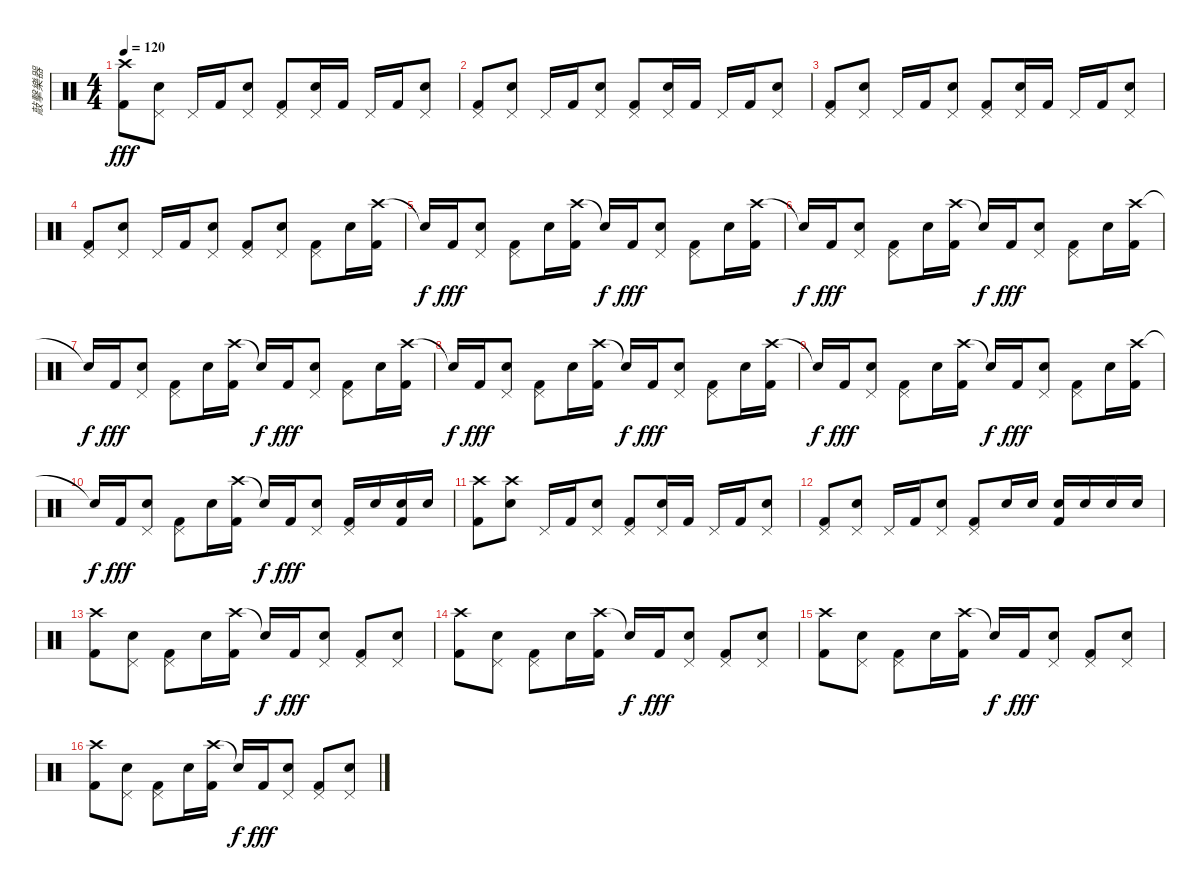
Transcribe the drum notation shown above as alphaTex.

\track ("敲擊樂器" "敲擊樂器") {instrument percussion}
\staff {score}
\articulation defaults
\ts (4 4)
\tempo 120
\clef neutral
\ks c
("Crash high (hit)" "Kick (hit) 2").8{dy fff} ("Pedal Hi-Hat (hit)" "Snare (hit) 2").8 "Pedal Hi-Hat (hit)".16 "Kick (hit) 2".16 ("Pedal Hi-Hat (hit)" "Snare (hit) 2").8 ("Pedal Hi-Hat (hit)" "Kick (hit) 2").8 ("Pedal Hi-Hat (hit)" "Snare (hit) 2").16 "Kick (hit) 2".16 "Pedal Hi-Hat (hit)".16 "Kick (hit) 2".16 ("Pedal Hi-Hat (hit)" "Snare (hit) 2").8 |
("Pedal Hi-Hat (hit)" "Kick (hit) 2").8 ("Pedal Hi-Hat (hit)" "Snare (hit) 2").8 "Pedal Hi-Hat (hit)".16 "Kick (hit) 2".16 ("Pedal Hi-Hat (hit)" "Snare (hit) 2").8 ("Pedal Hi-Hat (hit)" "Kick (hit) 2").8 ("Pedal Hi-Hat (hit)" "Snare (hit) 2").16 "Kick (hit) 2".16 "Pedal Hi-Hat (hit)".16 "Kick (hit) 2".16 ("Pedal Hi-Hat (hit)" "Snare (hit) 2").8 |
("Pedal Hi-Hat (hit)" "Kick (hit) 2").8 ("Pedal Hi-Hat (hit)" "Snare (hit) 2").8 "Pedal Hi-Hat (hit)".16 "Kick (hit) 2".16 ("Pedal Hi-Hat (hit)" "Snare (hit) 2").8 ("Pedal Hi-Hat (hit)" "Kick (hit) 2").8 ("Pedal Hi-Hat (hit)" "Snare (hit) 2").16 "Kick (hit) 2".16 "Pedal Hi-Hat (hit)".16 "Kick (hit) 2".16 ("Pedal Hi-Hat (hit)" "Snare (hit) 2").8 |
("Pedal Hi-Hat (hit)" "Kick (hit) 2").8 ("Pedal Hi-Hat (hit)" "Snare (hit) 2").8 "Pedal Hi-Hat (hit)".16 "Kick (hit) 2".16 ("Pedal Hi-Hat (hit)" "Snare (hit) 2").8 ("Pedal Hi-Hat (hit)" "Kick (hit) 2").8 ("Pedal Hi-Hat (hit)" "Snare (hit) 2").8 ("Pedal Hi-Hat (hit)" "Kick (hit) 2").8 "Snare (hit) 2".16 ("Crash high (hit)" "Kick (hit) 2").16 |
"Snare (hit)"{t}.16{dy f} "Kick (hit) 2".16{dy fff} ("Pedal Hi-Hat (hit)" "Snare (hit) 2").8 ("Pedal Hi-Hat (hit)" "Kick (hit) 2").8 "Snare (hit) 2".16 ("Crash high (hit)" "Kick (hit) 2").16 "Snare (hit)"{t}.16{dy f} "Kick (hit) 2".16{dy fff} ("Pedal Hi-Hat (hit)" "Snare (hit) 2").8 ("Pedal Hi-Hat (hit)" "Kick (hit) 2").8 "Snare (hit) 2".16 ("Crash high (hit)" "Kick (hit) 2").16 |
"Snare (hit)"{t}.16{dy f} "Kick (hit) 2".16{dy fff} ("Pedal Hi-Hat (hit)" "Snare (hit) 2").8 ("Pedal Hi-Hat (hit)" "Kick (hit) 2").8 "Snare (hit) 2".16 ("Crash high (hit)" "Kick (hit) 2").16 "Snare (hit)"{t}.16{dy f} "Kick (hit) 2".16{dy fff} ("Pedal Hi-Hat (hit)" "Snare (hit) 2").8 ("Pedal Hi-Hat (hit)" "Kick (hit) 2").8 "Snare (hit) 2".16 ("Crash high (hit)" "Kick (hit) 2").16 |
"Snare (hit)"{t}.16{dy f} "Kick (hit) 2".16{dy fff} ("Pedal Hi-Hat (hit)" "Snare (hit) 2").8 ("Pedal Hi-Hat (hit)" "Kick (hit) 2").8 "Snare (hit) 2".16 ("Crash high (hit)" "Kick (hit) 2").16 "Snare (hit)"{t}.16{dy f} "Kick (hit) 2".16{dy fff} ("Pedal Hi-Hat (hit)" "Snare (hit) 2").8 ("Pedal Hi-Hat (hit)" "Kick (hit) 2").8 "Snare (hit) 2".16 ("Crash high (hit)" "Kick (hit) 2").16 |
"Snare (hit)"{t}.16{dy f} "Kick (hit) 2".16{dy fff} ("Pedal Hi-Hat (hit)" "Snare (hit) 2").8 ("Pedal Hi-Hat (hit)" "Kick (hit) 2").8 "Snare (hit) 2".16 ("Crash high (hit)" "Kick (hit) 2").16 "Snare (hit)"{t}.16{dy f} "Kick (hit) 2".16{dy fff} ("Pedal Hi-Hat (hit)" "Snare (hit) 2").8 ("Pedal Hi-Hat (hit)" "Kick (hit) 2").8 "Snare (hit) 2".16 ("Crash high (hit)" "Kick (hit) 2").16 |
"Snare (hit)"{t}.16{dy f} "Kick (hit) 2".16{dy fff} ("Pedal Hi-Hat (hit)" "Snare (hit) 2").8 ("Pedal Hi-Hat (hit)" "Kick (hit) 2").8 "Snare (hit) 2".16 ("Crash high (hit)" "Kick (hit) 2").16 "Snare (hit)"{t}.16{dy f} "Kick (hit) 2".16{dy fff} ("Pedal Hi-Hat (hit)" "Snare (hit) 2").8 ("Pedal Hi-Hat (hit)" "Kick (hit) 2").8 "Snare (hit) 2".16 ("Crash high (hit)" "Kick (hit) 2").16 |
"Snare (hit)"{t}.16{dy f} "Kick (hit) 2".16{dy fff} ("Pedal Hi-Hat (hit)" "Snare (hit) 2").8 ("Pedal Hi-Hat (hit)" "Kick (hit) 2").8 "Snare (hit) 2".16 ("Crash high (hit)" "Kick (hit) 2").16 "Snare (hit)"{t}.16{dy f} "Kick (hit) 2".16{dy fff} ("Pedal Hi-Hat (hit)" "Snare (hit) 2").8 ("Pedal Hi-Hat (hit)" "Kick (hit) 2").16 "Snare (hit) 2".16 ("Snare (hit) 2" "Kick (hit) 2").16 "Snare (hit) 2".16 |
("Crash high (hit)" "Kick (hit) 2").8 ("Crash high (hit)" "Snare (hit) 2").8 "Pedal Hi-Hat (hit)".16 "Kick (hit) 2".16 ("Pedal Hi-Hat (hit)" "Snare (hit) 2").8 ("Pedal Hi-Hat (hit)" "Kick (hit) 2").8 ("Pedal Hi-Hat (hit)" "Snare (hit) 2").16 "Kick (hit) 2".16 "Pedal Hi-Hat (hit)".16 "Kick (hit) 2".16 ("Pedal Hi-Hat (hit)" "Snare (hit) 2").8 |
("Pedal Hi-Hat (hit)" "Kick (hit) 2").8 ("Pedal Hi-Hat (hit)" "Snare (hit) 2").8 "Pedal Hi-Hat (hit)".16 "Kick (hit) 2".16 ("Pedal Hi-Hat (hit)" "Snare (hit) 2").8 ("Pedal Hi-Hat (hit)" "Kick (hit) 2").8 "Snare (hit) 2".16 "Snare (hit) 2".16 ("Snare (hit) 2" "Kick (hit) 2").16 "Snare (hit) 2".16 "Snare (hit) 2".16 "Snare (hit) 2".16 |
("Crash high (hit)" "Kick (hit) 2").8 ("Pedal Hi-Hat (hit)" "Snare (hit) 2").8 ("Pedal Hi-Hat (hit)" "Kick (hit) 2").8 "Snare (hit) 2".16 ("Crash high (hit)" "Kick (hit) 2").16 "Snare (hit)"{t}.16{dy f} "Kick (hit) 2".16{dy fff} ("Pedal Hi-Hat (hit)" "Snare (hit) 2").8 ("Pedal Hi-Hat (hit)" "Kick (hit) 2").8 ("Pedal Hi-Hat (hit)" "Snare (hit) 2").8 |
("Crash high (hit)" "Kick (hit) 2").8 ("Pedal Hi-Hat (hit)" "Snare (hit) 2").8 ("Pedal Hi-Hat (hit)" "Kick (hit) 2").8 "Snare (hit) 2".16 ("Crash high (hit)" "Kick (hit) 2").16 "Snare (hit)"{t}.16{dy f} "Kick (hit) 2".16{dy fff} ("Pedal Hi-Hat (hit)" "Snare (hit) 2").8 ("Pedal Hi-Hat (hit)" "Kick (hit) 2").8 ("Pedal Hi-Hat (hit)" "Snare (hit) 2").8 |
("Crash high (hit)" "Kick (hit) 2").8 ("Pedal Hi-Hat (hit)" "Snare (hit) 2").8 ("Pedal Hi-Hat (hit)" "Kick (hit) 2").8 "Snare (hit) 2".16 ("Crash high (hit)" "Kick (hit) 2").16 "Snare (hit)"{t}.16{dy f} "Kick (hit) 2".16{dy fff} ("Pedal Hi-Hat (hit)" "Snare (hit) 2").8 ("Pedal Hi-Hat (hit)" "Kick (hit) 2").8 ("Pedal Hi-Hat (hit)" "Snare (hit) 2").8 |
("Crash high (hit)" "Kick (hit) 2").8 ("Pedal Hi-Hat (hit)" "Snare (hit) 2").8 ("Pedal Hi-Hat (hit)" "Kick (hit) 2").8 "Snare (hit) 2".16 ("Crash high (hit)" "Kick (hit) 2").16 "Snare (hit)"{t}.16{dy f} "Kick (hit) 2".16{dy fff} ("Pedal Hi-Hat (hit)" "Snare (hit) 2").8 ("Pedal Hi-Hat (hit)" "Kick (hit) 2").8 ("Pedal Hi-Hat (hit)" "Snare (hit) 2").8
